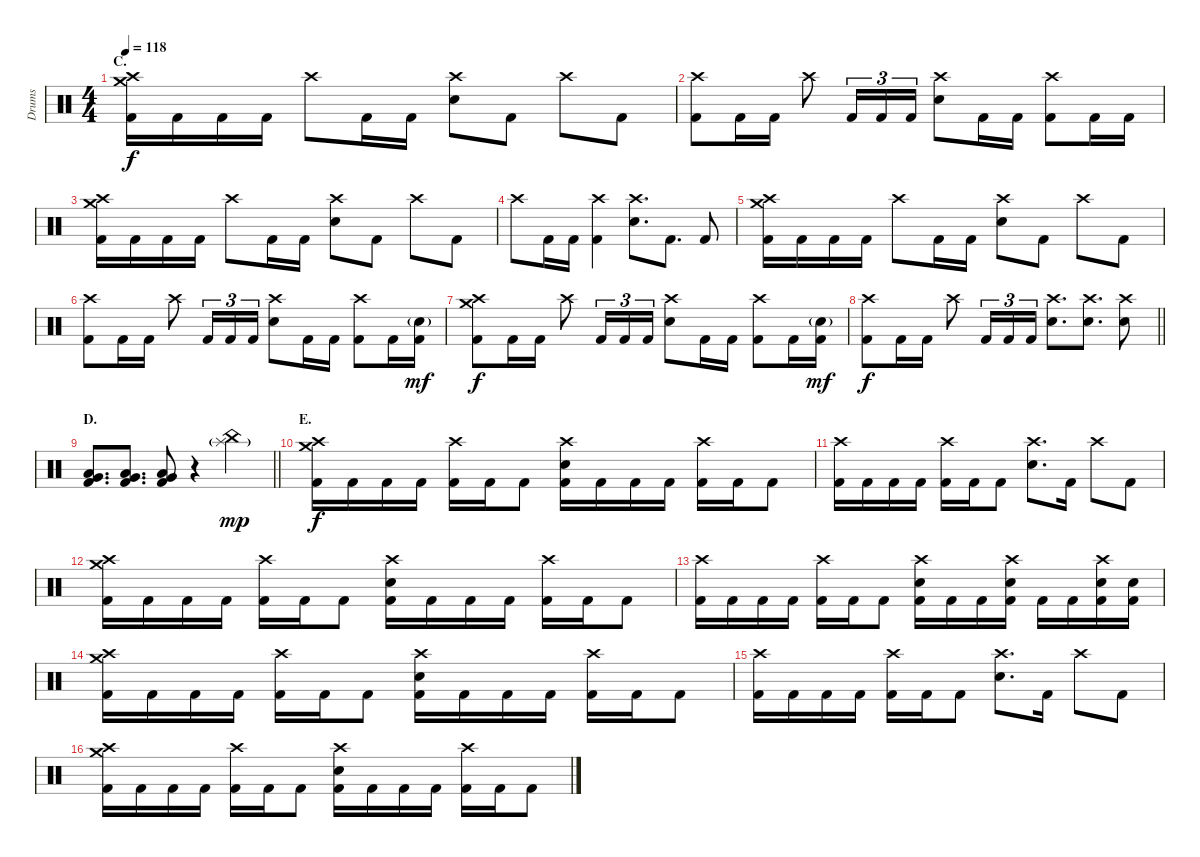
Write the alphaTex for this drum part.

\track ("Drums" "Drums") {instrument percussion}
\staff {score}
\articulation defaults
\ts (4 4)
\section ("" "C.")
\tempo 118
\clef neutral
\ks c
("Crash medium (hit)" "Crash high (hit)" "Kick (hit) 2").16{dy f} "Kick (hit) 2".16 "Kick (hit) 2".16 "Kick (hit) 2".16 "Crash high (hit)".8 "Kick (hit) 2".16 "Kick (hit) 2".16 ("Crash high (hit)" "Electric Snare (hit)").8 "Kick (hit) 2".8 "Crash high (hit)".8 "Kick (hit) 2".8 |
("Crash high (hit)" "Kick (hit) 2").8 "Kick (hit) 2".16 "Kick (hit) 2".16 "Crash high (hit)".8 "Kick (hit) 2".16{tu (3 2)} "Kick (hit) 2".16{tu (3 2)} "Kick (hit) 2".16{tu (3 2)} ("Crash high (hit)" "Electric Snare (hit)").8 "Kick (hit) 2".16 "Kick (hit) 2".16 ("Crash high (hit)" "Kick (hit) 2").8 "Kick (hit) 2".16 "Kick (hit) 2".16 |
("Crash medium (hit)" "Crash high (hit)" "Kick (hit) 2").16 "Kick (hit) 2".16 "Kick (hit) 2".16 "Kick (hit) 2".16 "Crash high (hit)".8 "Kick (hit) 2".16 "Kick (hit) 2".16 ("Crash high (hit)" "Electric Snare (hit)").8 "Kick (hit) 2".8 "Crash high (hit)".8 "Kick (hit) 2".8 |
"Crash high (hit)".8 "Kick (hit) 2".16 "Kick (hit) 2".16 ("Crash high (hit)" "Kick (hit) 2").4 ("Crash high (hit)" "Electric Snare (hit)").8{d} "Kick (hit) 2".8{d} "Kick (hit) 2".8 |
("Crash medium (hit)" "Crash high (hit)" "Kick (hit) 2").16 "Kick (hit) 2".16 "Kick (hit) 2".16 "Kick (hit) 2".16 "Crash high (hit)".8 "Kick (hit) 2".16 "Kick (hit) 2".16 ("Crash high (hit)" "Electric Snare (hit)").8 "Kick (hit) 2".8 "Crash high (hit)".8 "Kick (hit) 2".8 |
("Crash high (hit)" "Kick (hit) 2").8 "Kick (hit) 2".16 "Kick (hit) 2".16 "Crash high (hit)".8 "Kick (hit) 2".16{tu (3 2)} "Kick (hit) 2".16{tu (3 2)} "Kick (hit) 2".16{tu (3 2)} ("Crash high (hit)" "Electric Snare (hit)").8 "Kick (hit) 2".16 "Kick (hit) 2".16 ("Crash high (hit)" "Kick (hit) 2").8 "Kick (hit) 2".16 ("Electric Snare (hit)"{g} "Kick (hit) 2").16{dy mf} |
("Crash medium (hit)" "Crash high (hit)" "Kick (hit) 2").8{dy f} "Kick (hit) 2".16 "Kick (hit) 2".16 "Crash high (hit)".8 "Kick (hit) 2".16{tu (3 2)} "Kick (hit) 2".16{tu (3 2)} "Kick (hit) 2".16{tu (3 2)} ("Crash high (hit)" "Electric Snare (hit)").8 "Kick (hit) 2".16 "Kick (hit) 2".16 ("Crash high (hit)" "Kick (hit) 2").8 "Kick (hit) 2".16 ("Electric Snare (hit)"{g} "Kick (hit) 2").16{dy mf} |
\barLineRight lightlight
("Crash high (hit)" "Kick (hit) 2").8{dy f} "Kick (hit) 2".16 "Kick (hit) 2".16 "Crash high (hit)".8 "Kick (hit) 2".16{tu (3 2)} "Kick (hit) 2".16{tu (3 2)} "Kick (hit) 2".16{tu (3 2)} ("Crash high (hit)" "Electric Snare (hit)").8{d} ("Crash high (hit)" "Electric Snare (hit)").8{d} ("Crash high (hit)" "Electric Snare (hit)").8 |
\section ("" "D.")
\barLineRight lightlight
("Very Low Tom (hit)" "Low Floor Tom (hit)" "Kick (hit) 2").8{d} ("Very Low Tom (hit)" "Low Floor Tom (hit)" "Kick (hit) 2").8{d} ("Very Low Tom (hit)" "Low Floor Tom (hit)" "Kick (hit) 2").8 r.4 ("China (hit)" "Splash (hit)"{g}).4{dy mp} |
\section ("" "E.")
("Crash medium (hit)" "Crash high (hit)" "Kick (hit) 2").16{dy f} "Kick (hit) 2".16 "Kick (hit) 2".16 "Kick (hit) 2".16 ("Crash high (hit)" "Kick (hit) 2").16 "Kick (hit) 2".16 "Kick (hit) 2".8 ("Crash high (hit)" "Electric Snare (hit)" "Kick (hit) 2").16 "Kick (hit) 2".16 "Kick (hit) 2".16 "Kick (hit) 2".16 ("Crash high (hit)" "Kick (hit) 2").16 "Kick (hit) 2".16 "Kick (hit) 2".8 |
("Crash high (hit)" "Kick (hit) 2").16 "Kick (hit) 2".16 "Kick (hit) 2".16 "Kick (hit) 2".16 ("Crash high (hit)" "Kick (hit) 2").16 "Kick (hit) 2".16 "Kick (hit) 2".8 ("Crash high (hit)" "Electric Snare (hit)").8{d} "Kick (hit) 2".16 "Crash high (hit)".8 "Kick (hit) 2".8 |
("Crash medium (hit)" "Crash high (hit)" "Kick (hit) 2").16 "Kick (hit) 2".16 "Kick (hit) 2".16 "Kick (hit) 2".16 ("Crash high (hit)" "Kick (hit) 2").16 "Kick (hit) 2".16 "Kick (hit) 2".8 ("Crash high (hit)" "Electric Snare (hit)" "Kick (hit) 2").16 "Kick (hit) 2".16 "Kick (hit) 2".16 "Kick (hit) 2".16 ("Crash high (hit)" "Kick (hit) 2").16 "Kick (hit) 2".16 "Kick (hit) 2".8 |
("Crash high (hit)" "Kick (hit) 2").16 "Kick (hit) 2".16 "Kick (hit) 2".16 "Kick (hit) 2".16 ("Crash high (hit)" "Kick (hit) 2").16 "Kick (hit) 2".16 "Kick (hit) 2".8 ("Crash high (hit)" "Electric Snare (hit)" "Kick (hit) 2").16 "Kick (hit) 2".16 "Kick (hit) 2".16 ("Crash high (hit)" "Electric Snare (hit)" "Kick (hit) 2").16 "Kick (hit) 2".16 "Kick (hit) 2".16 ("Crash high (hit)" "Electric Snare (hit)" "Kick (hit) 2").16 ("Electric Snare (hit)" "Kick (hit) 2").16 |
("Crash medium (hit)" "Crash high (hit)" "Kick (hit) 2").16 "Kick (hit) 2".16 "Kick (hit) 2".16 "Kick (hit) 2".16 ("Crash high (hit)" "Kick (hit) 2").16 "Kick (hit) 2".16 "Kick (hit) 2".8 ("Crash high (hit)" "Electric Snare (hit)" "Kick (hit) 2").16 "Kick (hit) 2".16 "Kick (hit) 2".16 "Kick (hit) 2".16 ("Crash high (hit)" "Kick (hit) 2").16 "Kick (hit) 2".16 "Kick (hit) 2".8 |
("Crash high (hit)" "Kick (hit) 2").16 "Kick (hit) 2".16 "Kick (hit) 2".16 "Kick (hit) 2".16 ("Crash high (hit)" "Kick (hit) 2").16 "Kick (hit) 2".16 "Kick (hit) 2".8 ("Crash high (hit)" "Electric Snare (hit)").8{d} "Kick (hit) 2".16 "Crash high (hit)".8 "Kick (hit) 2".8 |
("Crash medium (hit)" "Crash high (hit)" "Kick (hit) 2").16 "Kick (hit) 2".16 "Kick (hit) 2".16 "Kick (hit) 2".16 ("Crash high (hit)" "Kick (hit) 2").16 "Kick (hit) 2".16 "Kick (hit) 2".8 ("Crash high (hit)" "Electric Snare (hit)" "Kick (hit) 2").16 "Kick (hit) 2".16 "Kick (hit) 2".16 "Kick (hit) 2".16 ("Crash high (hit)" "Kick (hit) 2").16 "Kick (hit) 2".16 "Kick (hit) 2".8
